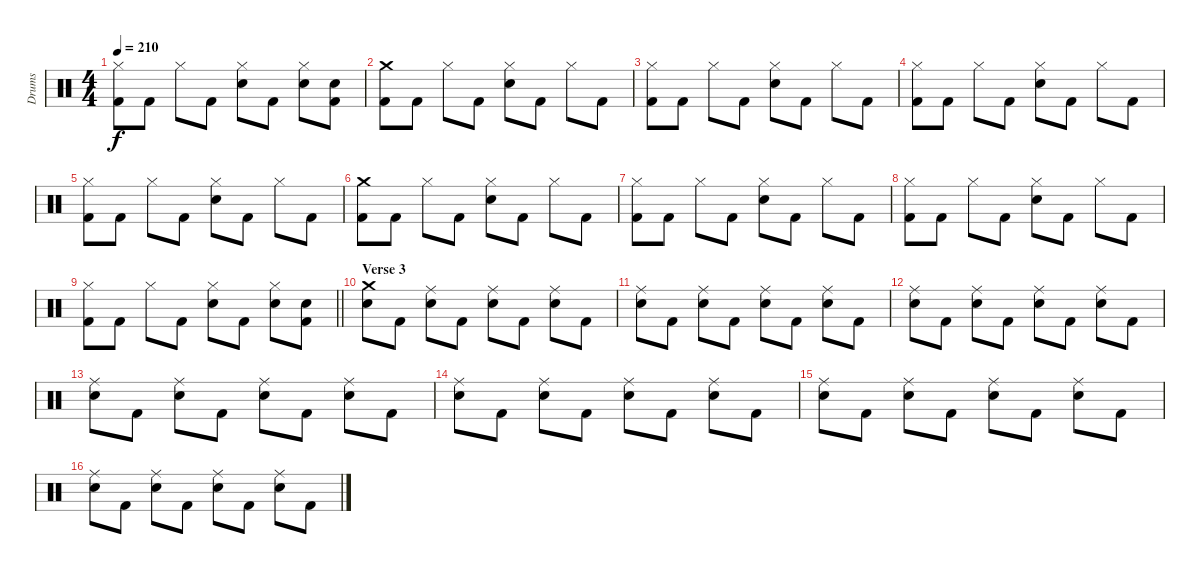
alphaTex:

\track ("Drums" "Drums") {instrument percussion}
\staff {score}
\articulation defaults
\ts (4 4)
\tempo 210
\clef neutral
\ks c
("Kick (hit) 2" "Hi-Hat (closed)").8{dy f} "Kick (hit) 2".8 "Hi-Hat (closed)".8 "Kick (hit) 2".8 ("Snare (hit) 2" "Hi-Hat (closed)").8 "Kick (hit) 2".8 ("Snare (hit) 2" "Hi-Hat (closed)").8 ("Kick (hit) 2" "Snare (hit) 2").8 |
("Kick (hit) 2" "Crash medium (hit)").8 "Kick (hit) 2".8 "Hi-Hat (closed)".8 "Kick (hit) 2".8 ("Snare (hit) 2" "Hi-Hat (closed)").8 "Kick (hit) 2".8 "Hi-Hat (closed)".8 "Kick (hit) 2".8 |
("Kick (hit) 2" "Hi-Hat (closed)").8 "Kick (hit) 2".8 "Hi-Hat (closed)".8 "Kick (hit) 2".8 ("Snare (hit) 2" "Hi-Hat (closed)").8 "Kick (hit) 2".8 "Hi-Hat (closed)".8 "Kick (hit) 2".8 |
("Kick (hit) 2" "Hi-Hat (closed)").8 "Kick (hit) 2".8 "Hi-Hat (closed)".8 "Kick (hit) 2".8 ("Snare (hit) 2" "Hi-Hat (closed)").8 "Kick (hit) 2".8 "Hi-Hat (closed)".8 "Kick (hit) 2".8 |
("Kick (hit) 2" "Hi-Hat (closed)").8 "Kick (hit) 2".8 "Hi-Hat (closed)".8 "Kick (hit) 2".8 ("Snare (hit) 2" "Hi-Hat (closed)").8 "Kick (hit) 2".8 "Hi-Hat (closed)".8 "Kick (hit) 2".8 |
("Kick (hit) 2" "Crash medium (hit)").8 "Kick (hit) 2".8 "Hi-Hat (closed)".8 "Kick (hit) 2".8 ("Snare (hit) 2" "Hi-Hat (closed)").8 "Kick (hit) 2".8 "Hi-Hat (closed)".8 "Kick (hit) 2".8 |
("Kick (hit) 2" "Hi-Hat (closed)").8 "Kick (hit) 2".8 "Hi-Hat (closed)".8 "Kick (hit) 2".8 ("Snare (hit) 2" "Hi-Hat (closed)").8 "Kick (hit) 2".8 "Hi-Hat (closed)".8 "Kick (hit) 2".8 |
("Kick (hit) 2" "Hi-Hat (closed)").8 "Kick (hit) 2".8 "Hi-Hat (closed)".8 "Kick (hit) 2".8 ("Snare (hit) 2" "Hi-Hat (closed)").8 "Kick (hit) 2".8 "Hi-Hat (closed)".8 "Kick (hit) 2".8 |
\barLineRight lightlight
("Kick (hit) 2" "Hi-Hat (closed)").8 "Kick (hit) 2".8 "Hi-Hat (closed)".8 "Kick (hit) 2".8 ("Snare (hit) 2" "Hi-Hat (closed)").8 "Kick (hit) 2".8 ("Snare (hit) 2" "Hi-Hat (closed)").8 ("Kick (hit) 2" "Snare (hit) 2").8 |
\section ("" "Verse 3")
("Snare (hit) 2" "Crash medium (hit)").8 "Kick (hit) 2".8 ("Snare (hit) 2" "Ride (middle)").8 "Kick (hit) 2".8 ("Snare (hit) 2" "Ride (middle)").8 "Kick (hit) 2".8 ("Snare (hit) 2" "Ride (middle)").8 "Kick (hit) 2".8 |
("Snare (hit) 2" "Ride (middle)").8 "Kick (hit) 2".8 ("Snare (hit) 2" "Ride (middle)").8 "Kick (hit) 2".8 ("Snare (hit) 2" "Ride (middle)").8 "Kick (hit) 2".8 ("Snare (hit) 2" "Ride (middle)").8 "Kick (hit) 2".8 |
("Snare (hit) 2" "Ride (middle)").8 "Kick (hit) 2".8 ("Snare (hit) 2" "Ride (middle)").8 "Kick (hit) 2".8 ("Snare (hit) 2" "Ride (middle)").8 "Kick (hit) 2".8 ("Snare (hit) 2" "Ride (middle)").8 "Kick (hit) 2".8 |
("Snare (hit) 2" "Ride (middle)").8 "Kick (hit) 2".8 ("Snare (hit) 2" "Ride (middle)").8 "Kick (hit) 2".8 ("Snare (hit) 2" "Ride (middle)").8 "Kick (hit) 2".8 ("Snare (hit) 2" "Ride (middle)").8 "Kick (hit) 2".8 |
("Snare (hit) 2" "Ride (middle)").8 "Kick (hit) 2".8 ("Snare (hit) 2" "Ride (middle)").8 "Kick (hit) 2".8 ("Snare (hit) 2" "Ride (middle)").8 "Kick (hit) 2".8 ("Snare (hit) 2" "Ride (middle)").8 "Kick (hit) 2".8 |
("Snare (hit) 2" "Ride (middle)").8 "Kick (hit) 2".8 ("Snare (hit) 2" "Ride (middle)").8 "Kick (hit) 2".8 ("Snare (hit) 2" "Ride (middle)").8 "Kick (hit) 2".8 ("Snare (hit) 2" "Ride (middle)").8 "Kick (hit) 2".8 |
("Snare (hit) 2" "Ride (middle)").8 "Kick (hit) 2".8 ("Snare (hit) 2" "Ride (middle)").8 "Kick (hit) 2".8 ("Snare (hit) 2" "Ride (middle)").8 "Kick (hit) 2".8 ("Snare (hit) 2" "Ride (middle)").8 "Kick (hit) 2".8
